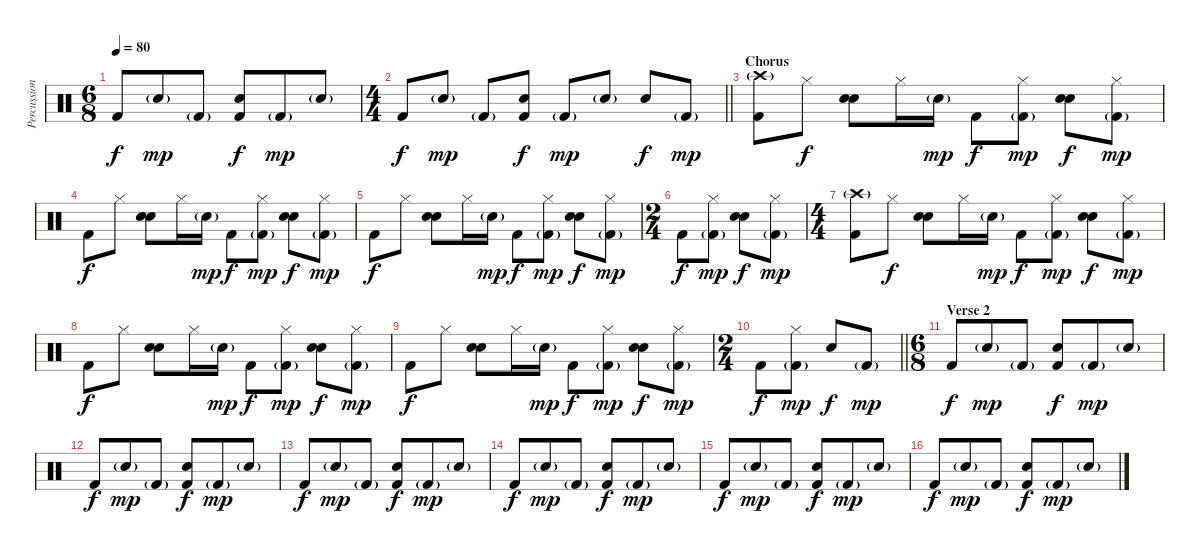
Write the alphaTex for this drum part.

\track ("Percussion" "Percussion") {instrument percussion}
\staff {score}
\articulation defaults
\ts (6 8)
\tempo 80
\clef neutral
\ks c "Kick (hit) 2".8{dy f} "Snare (hit) 2"{g}.8{dy mp} "Kick (hit) 2"{g}.8
("Snare (hit) 2" "Kick (hit) 2").8{dy f} "Kick (hit) 2"{g}.8{dy mp} "Snare (hit) 2"{g}.8 |
\ts (4 4)
\barLineRight lightlight "Kick (hit) 2".8{dy f} "Snare (hit) 2"{g}.8{dy mp} "Kick (hit) 2"{g}.8
("Snare (hit) 2" "Kick (hit) 2").8{dy f} "Kick (hit) 2"{g}.8{dy mp} "Snare (hit) 2"{g}.8 "Snare (hit) 2".8{dy f} "Kick (hit) 2"{g}.8{dy mp} |
\section ("" "Chorus")
("Crash high (hit)"{g} "Kick (hit) 2").8 "Hi-Hat (closed)".8{dy f} ("Snare (hit) 2" "Hand Clap (hit)").8 "Hi-Hat (closed)".16 "Snare (hit) 2"{g}.16{dy mp} "Kick (hit) 2".8{dy f} ("Hi-Hat (closed)" "Kick (hit) 2"{g}).8{dy mp} ("Snare (hit) 2" "Hand Clap (hit)").8{dy f} ("Hi-Hat (closed)" "Kick (hit) 2"{g}).8{dy mp} |
"Kick (hit) 2".8{dy f} "Hi-Hat (closed)".8 ("Snare (hit) 2" "Hand Clap (hit)").8 "Hi-Hat (closed)".16 "Snare (hit) 2"{g}.16{dy mp} "Kick (hit) 2".8{dy f} ("Hi-Hat (closed)" "Kick (hit) 2"{g}).8{dy mp} ("Snare (hit) 2" "Hand Clap (hit)").8{dy f} ("Hi-Hat (closed)" "Kick (hit) 2"{g}).8{dy mp} |
"Kick (hit) 2".8{dy f} "Hi-Hat (closed)".8 ("Snare (hit) 2" "Hand Clap (hit)").8 "Hi-Hat (closed)".16 "Snare (hit) 2"{g}.16{dy mp} "Kick (hit) 2".8{dy f} ("Hi-Hat (closed)" "Kick (hit) 2"{g}).8{dy mp} ("Snare (hit) 2" "Hand Clap (hit)").8{dy f} ("Hi-Hat (closed)" "Kick (hit) 2"{g}).8{dy mp} |
\ts (2 4)
"Kick (hit) 2".8{dy f} ("Hi-Hat (closed)" "Kick (hit) 2"{g}).8{dy mp} ("Snare (hit) 2" "Hand Clap (hit)").8{dy f} ("Hi-Hat (closed)" "Kick (hit) 2"{g}).8{dy mp} |
\ts (4 4)
("Crash high (hit)"{g} "Kick (hit) 2").8 "Hi-Hat (closed)".8{dy f} ("Snare (hit) 2" "Hand Clap (hit)").8 "Hi-Hat (closed)".16 "Snare (hit) 2"{g}.16{dy mp} "Kick (hit) 2".8{dy f} ("Hi-Hat (closed)" "Kick (hit) 2"{g}).8{dy mp} ("Snare (hit) 2" "Hand Clap (hit)").8{dy f} ("Hi-Hat (closed)" "Kick (hit) 2"{g}).8{dy mp} |
"Kick (hit) 2".8{dy f} "Hi-Hat (closed)".8 ("Snare (hit) 2" "Hand Clap (hit)").8 "Hi-Hat (closed)".16 "Snare (hit) 2"{g}.16{dy mp} "Kick (hit) 2".8{dy f} ("Hi-Hat (closed)" "Kick (hit) 2"{g}).8{dy mp} ("Snare (hit) 2" "Hand Clap (hit)").8{dy f} ("Hi-Hat (closed)" "Kick (hit) 2"{g}).8{dy mp} |
"Kick (hit) 2".8{dy f} "Hi-Hat (closed)".8 ("Snare (hit) 2" "Hand Clap (hit)").8 "Hi-Hat (closed)".16 "Snare (hit) 2"{g}.16{dy mp} "Kick (hit) 2".8{dy f} ("Hi-Hat (closed)" "Kick (hit) 2"{g}).8{dy mp} ("Snare (hit) 2" "Hand Clap (hit)").8{dy f} ("Hi-Hat (closed)" "Kick (hit) 2"{g}).8{dy mp} |
\ts (2 4)
\barLineRight lightlight "Kick (hit) 2".8{dy f}
("Hi-Hat (closed)" "Kick (hit) 2"{g}).8{dy mp} "Snare (hit) 2".8{dy f} "Kick (hit) 2"{g}.8{dy mp} |
\ts (6 8)
\section ("" "Verse 2")
"Kick (hit) 2".8{dy f} "Snare (hit) 2"{g}.8{dy mp} "Kick (hit) 2"{g}.8 ("Snare (hit) 2" "Kick (hit) 2").8{dy f} "Kick (hit) 2"{g}.8{dy mp} "Snare (hit) 2"{g}.8 |
"Kick (hit) 2".8{dy f} "Snare (hit) 2"{g}.8{dy mp} "Kick (hit) 2"{g}.8 ("Snare (hit) 2" "Kick (hit) 2").8{dy f} "Kick (hit) 2"{g}.8{dy mp} "Snare (hit) 2"{g}.8 |
"Kick (hit) 2".8{dy f} "Snare (hit) 2"{g}.8{dy mp} "Kick (hit) 2"{g}.8 ("Snare (hit) 2" "Kick (hit) 2").8{dy f} "Kick (hit) 2"{g}.8{dy mp} "Snare (hit) 2"{g}.8 |
"Kick (hit) 2".8{dy f} "Snare (hit) 2"{g}.8{dy mp} "Kick (hit) 2"{g}.8 ("Snare (hit) 2" "Kick (hit) 2").8{dy f} "Kick (hit) 2"{g}.8{dy mp} "Snare (hit) 2"{g}.8 |
"Kick (hit) 2".8{dy f} "Snare (hit) 2"{g}.8{dy mp} "Kick (hit) 2"{g}.8 ("Snare (hit) 2" "Kick (hit) 2").8{dy f} "Kick (hit) 2"{g}.8{dy mp} "Snare (hit) 2"{g}.8 |
"Kick (hit) 2".8{dy f} "Snare (hit) 2"{g}.8{dy mp} "Kick (hit) 2"{g}.8 ("Snare (hit) 2" "Kick (hit) 2").8{dy f} "Kick (hit) 2"{g}.8{dy mp} "Snare (hit) 2"{g}.8
